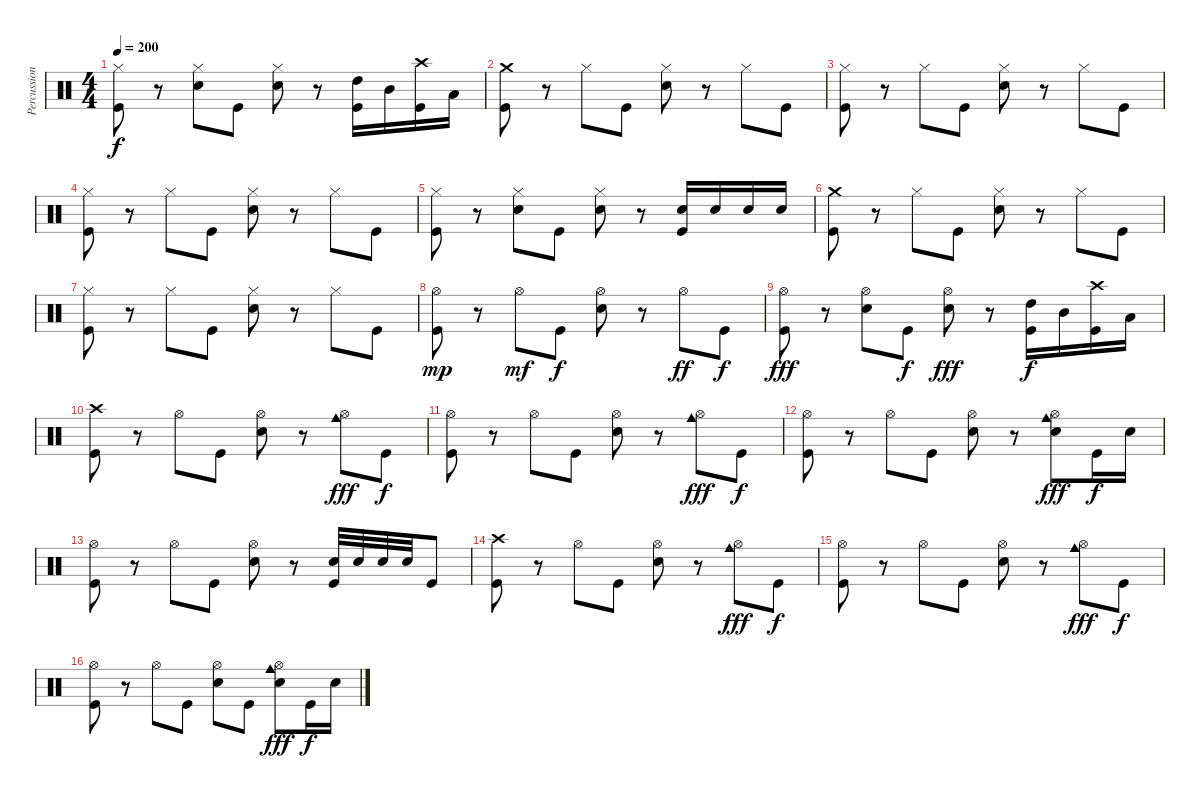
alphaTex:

\track ("Percussion" "Percussion") {instrument percussion}
\staff {score}
\articulation defaults
\ts (4 4)
\tempo 200
\clef neutral
\ks c
("Hi-Hat (closed)" "Kick (hit)").8{dy f} r.8 ("Hi-Hat (closed)" "Electric Snare (hit)").8 "Kick (hit)".8 ("Hi-Hat (closed)" "Electric Snare (hit)").8 r.8 ("High Tom (hit)" "Kick (hit)").16 "Mid Tom (hit)".16 ("Crash high (hit)" "Kick (hit)").16 "Low Floor Tom (hit)".16 |
("Crash medium (hit)" "Kick (hit)").8 r.8 "Hi-Hat (closed)".8 "Kick (hit)".8 ("Hi-Hat (closed)" "Electric Snare (hit)").8 r.8 "Hi-Hat (closed)".8 "Kick (hit)".8 |
("Hi-Hat (closed)" "Kick (hit)").8 r.8 "Hi-Hat (closed)".8 "Kick (hit)".8 ("Hi-Hat (closed)" "Electric Snare (hit)").8 r.8 "Hi-Hat (closed)".8 "Kick (hit)".8 |
("Hi-Hat (closed)" "Kick (hit)").8 r.8 "Hi-Hat (closed)".8 "Kick (hit)".8 ("Hi-Hat (closed)" "Electric Snare (hit)").8 r.8 "Hi-Hat (closed)".8 "Kick (hit)".8 |
("Hi-Hat (closed)" "Kick (hit)").8 r.8 ("Hi-Hat (closed)" "Electric Snare (hit)").8 "Kick (hit)".8 ("Hi-Hat (closed)" "Electric Snare (hit)").8 r.8 ("Electric Snare (hit)" "Kick (hit)").16 "Electric Snare (hit)".16 "Electric Snare (hit)".16 "Electric Snare (hit)".16 |
("Crash medium (hit)" "Kick (hit)").8 r.8 "Hi-Hat (closed)".8 "Kick (hit)".8 ("Hi-Hat (closed)" "Electric Snare (hit)").8 r.8 "Hi-Hat (closed)".8 "Kick (hit)".8 |
("Hi-Hat (closed)" "Kick (hit)").8 r.8 "Hi-Hat (closed)".8 "Kick (hit)".8 ("Hi-Hat (closed)" "Electric Snare (hit)").8 r.8 "Hi-Hat (closed)".8 "Kick (hit)".8 |
("Hi-Hat (open)" "Kick (hit)").8{dy mp} r.8 "Hi-Hat (open)".8{dy mf} "Kick (hit)".8{dy f} ("Hi-Hat (open)" "Electric Snare (hit)").8 r.8 "Hi-Hat (open)".8{dy ff} "Kick (hit)".8{dy f} |
("Hi-Hat (open)" "Kick (hit)").8{dy fff} r.8 ("Hi-Hat (open)" "Electric Snare (hit)").8 "Kick (hit)".8{dy f} ("Hi-Hat (open)" "Electric Snare (hit)").8{dy fff} r.8 ("High Tom (hit)" "Kick (hit)").16{dy f} "Mid Tom (hit)".16 ("Crash high (hit)" "Kick (hit)").16 "Low Floor Tom (hit)".16 |
("Crash high (hit)" "Kick (hit)").8 r.8 "Hi-Hat (open)".8 "Kick (hit)".8 ("Hi-Hat (open)" "Electric Snare (hit)").8 r.8 ("Hi-Hat (open)" "Cowbell medium (hit)").8{dy fff} "Kick (hit)".8{dy f} |
("Hi-Hat (open)" "Kick (hit)").8 r.8 "Hi-Hat (open)".8 "Kick (hit)".8 ("Hi-Hat (open)" "Electric Snare (hit)").8 r.8 ("Hi-Hat (open)" "Cowbell medium (hit)").8{dy fff} "Kick (hit)".8{dy f} |
("Hi-Hat (open)" "Kick (hit)").8 r.8 "Hi-Hat (open)".8 "Kick (hit)".8 ("Hi-Hat (open)" "Electric Snare (hit)").8 r.8 ("Hi-Hat (open)" "Cowbell medium (hit)" "Electric Snare (hit)").8{dy fff} "Kick (hit)".16{dy f} "Electric Snare (hit)".16 |
("Hi-Hat (open)" "Kick (hit)").8 r.8 "Hi-Hat (open)".8 "Kick (hit)".8 ("Hi-Hat (open)" "Electric Snare (hit)").8 r.8 ("Electric Snare (hit)" "Kick (hit)").32 "Electric Snare (hit)".32 "Electric Snare (hit)".32 "Electric Snare (hit)".32 "Kick (hit)".8 |
("Crash high (hit)" "Kick (hit)").8 r.8 "Hi-Hat (open)".8 "Kick (hit)".8 ("Hi-Hat (open)" "Electric Snare (hit)").8 r.8 ("Hi-Hat (open)" "Cowbell medium (hit)").8{dy fff} "Kick (hit)".8{dy f} |
("Hi-Hat (open)" "Kick (hit)").8 r.8 "Hi-Hat (open)".8 "Kick (hit)".8 ("Hi-Hat (open)" "Electric Snare (hit)").8 r.8 ("Hi-Hat (open)" "Cowbell medium (hit)").8{dy fff} "Kick (hit)".8{dy f} |
("Hi-Hat (open)" "Kick (hit)").8 r.8 "Hi-Hat (open)".8 "Kick (hit)".8 ("Hi-Hat (open)" "Electric Snare (hit)").8 "Kick (hit)".8 ("Hi-Hat (open)" "Cowbell medium (hit)" "Electric Snare (hit)").8{dy fff} "Kick (hit)".16{dy f} "Electric Snare (hit)".16
